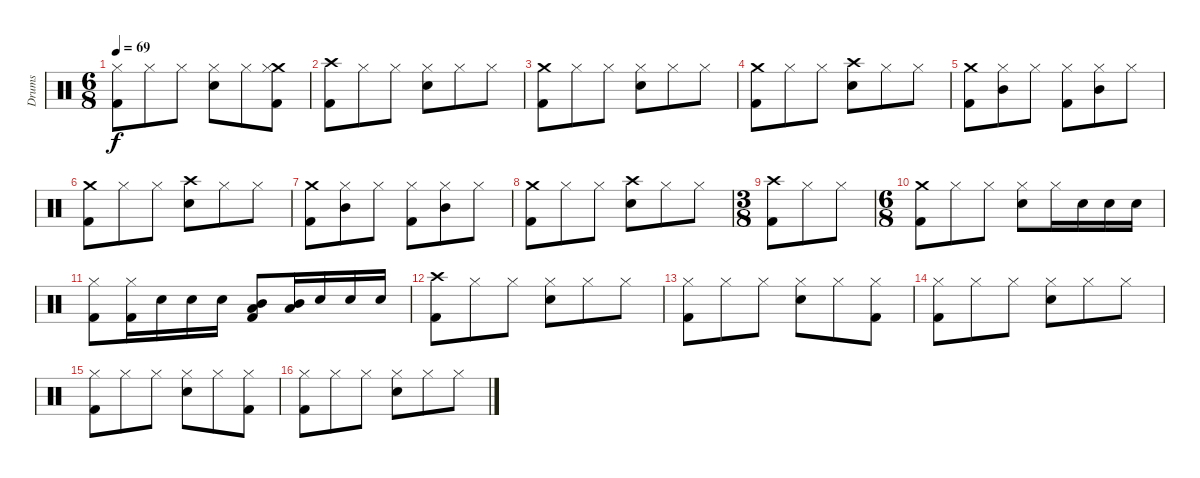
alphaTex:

\track ("Drums" "Drums") {instrument percussion}
\staff {score}
\articulation defaults
\ts (6 8)
\tempo 69
\clef neutral
\ks c
("Hi-Hat (closed)" "Kick (hit) 2").8{dy f} "Hi-Hat (closed)".8 "Hi-Hat (closed)".8 ("Hi-Hat (closed)" "Snare (hit) 2").8 "Hi-Hat (closed)".8 ("Crash medium (hit)" "Hi-Hat (closed)" "Kick (hit) 2").8 |
("Crash high (hit)" "Kick (hit) 2").8 "Hi-Hat (closed)".8 "Hi-Hat (closed)".8 ("Hi-Hat (closed)" "Snare (hit) 2").8 "Hi-Hat (closed)".8 "Hi-Hat (closed)".8 |
("Crash medium (hit)" "Kick (hit) 2").8 "Hi-Hat (closed)".8 "Hi-Hat (closed)".8 ("Hi-Hat (closed)" "Snare (hit) 2").8 "Hi-Hat (closed)".8 "Hi-Hat (closed)".8 |
("Crash medium (hit)" "Kick (hit) 2").8 "Hi-Hat (closed)".8 "Hi-Hat (closed)".8 ("Crash high (hit)" "Snare (hit) 2").8 "Hi-Hat (closed)".8 "Hi-Hat (closed)".8 |
("Crash medium (hit)" "Kick (hit) 2").8 ("Hi-Hat (closed)" "Mid Tom (hit)").8 "Hi-Hat (closed)".8 ("Hi-Hat (closed)" "Kick (hit) 2").8 ("Hi-Hat (closed)" "Mid Tom (hit)").8 "Hi-Hat (closed)".8 |
("Crash medium (hit)" "Kick (hit) 2").8 "Hi-Hat (closed)".8 "Hi-Hat (closed)".8 ("Crash high (hit)" "Snare (hit) 2").8 "Hi-Hat (closed)".8 "Hi-Hat (closed)".8 |
("Crash medium (hit)" "Kick (hit) 2").8 ("Hi-Hat (closed)" "Mid Tom (hit)").8 "Hi-Hat (closed)".8 ("Hi-Hat (closed)" "Kick (hit) 2").8 ("Hi-Hat (closed)" "Mid Tom (hit)").8 "Hi-Hat (closed)".8 |
("Crash medium (hit)" "Kick (hit) 2").8 "Hi-Hat (closed)".8 "Hi-Hat (closed)".8 ("Crash high (hit)" "Snare (hit) 2").8 "Hi-Hat (closed)".8 "Hi-Hat (closed)".8 |
\ts (3 8)
("Crash high (hit)" "Kick (hit) 2").8 "Hi-Hat (closed)".8 "Hi-Hat (closed)".8 |
\ts (6 8)
("Crash medium (hit)" "Kick (hit) 2").8 "Hi-Hat (closed)".8 "Hi-Hat (closed)".8 ("Hi-Hat (closed)" "Snare (hit) 2").8 "Hi-Hat (closed)".16 "Snare (hit) 2".16 "Snare (hit) 2".16 "Snare (hit) 2".16 |
("Hi-Hat (closed)" "Kick (hit) 2").8 ("Hi-Hat (closed)" "Kick (hit) 2").16 "Snare (hit) 2".16 "Snare (hit) 2".16 "Snare (hit) 2".16 ("Mid Tom (hit)" "Low Tom (hit)" "Kick (hit) 2").8 ("Mid Tom (hit)" "Low Tom (hit)").16 "Snare (hit) 2".16 "Snare (hit) 2".16 "Snare (hit) 2".16 |
("Crash high (hit)" "Kick (hit) 2").8 "Hi-Hat (closed)".8 "Hi-Hat (closed)".8 ("Hi-Hat (closed)" "Snare (hit) 2").8 "Hi-Hat (closed)".8 "Hi-Hat (closed)".8 |
("Hi-Hat (closed)" "Kick (hit) 2").8 "Hi-Hat (closed)".8 "Hi-Hat (closed)".8 ("Hi-Hat (closed)" "Snare (hit) 2").8 "Hi-Hat (closed)".8 ("Hi-Hat (closed)" "Kick (hit) 2").8 |
("Hi-Hat (closed)" "Kick (hit) 2").8 "Hi-Hat (closed)".8 "Hi-Hat (closed)".8 ("Hi-Hat (closed)" "Snare (hit) 2").8 "Hi-Hat (closed)".8 "Hi-Hat (closed)".8 |
("Hi-Hat (closed)" "Kick (hit) 2").8 "Hi-Hat (closed)".8 "Hi-Hat (closed)".8 ("Hi-Hat (closed)" "Snare (hit) 2").8 "Hi-Hat (closed)".8 ("Hi-Hat (closed)" "Kick (hit) 2").8 |
("Hi-Hat (closed)" "Kick (hit) 2").8 "Hi-Hat (closed)".8 "Hi-Hat (closed)".8 ("Hi-Hat (closed)" "Snare (hit) 2").8 "Hi-Hat (closed)".8 "Hi-Hat (closed)".8
